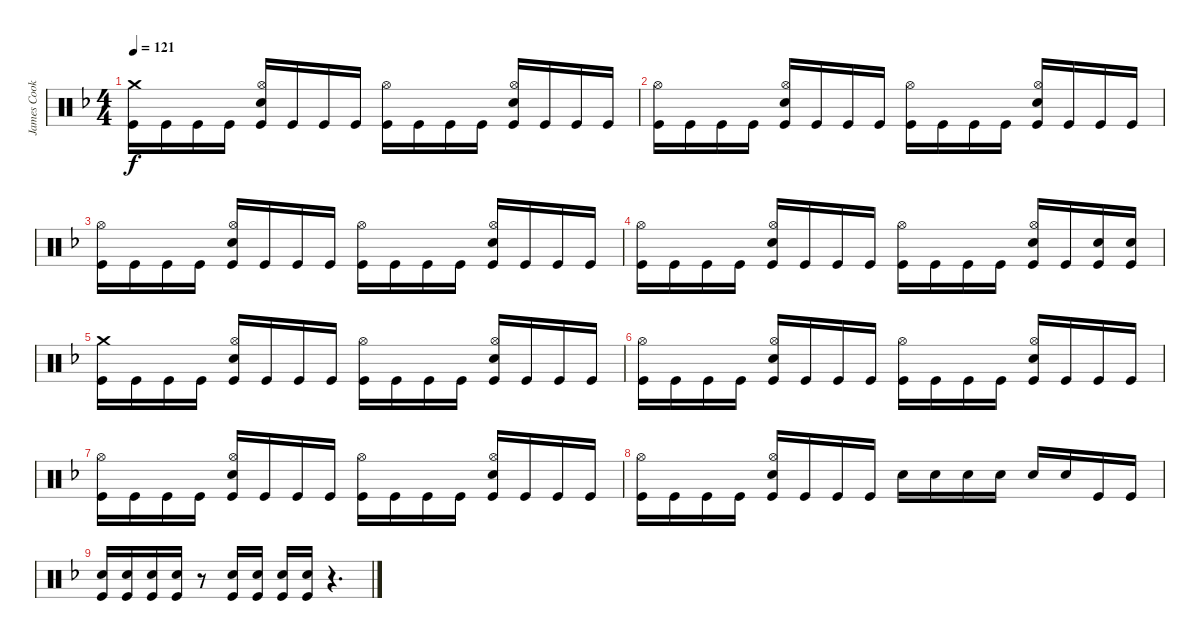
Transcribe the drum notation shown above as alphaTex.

\track ("James Cook" "James Cook") {instrument percussion}
\staff {score}
\articulation defaults
\ts (4 4)
\tempo 121
\clef neutral
\ks f
("Crash medium (hit)" "Kick (hit)").16{dy f} "Kick (hit)".16 "Kick (hit)".16 "Kick (hit)".16 ("Hi-Hat (open)" "Snare (hit) 2" "Kick (hit)").16 "Kick (hit)".16 "Kick (hit)".16 "Kick (hit)".16 ("Hi-Hat (open)" "Kick (hit)").16 "Kick (hit)".16 "Kick (hit)".16 "Kick (hit)".16 ("Hi-Hat (open)" "Snare (hit) 2" "Kick (hit)").16 "Kick (hit)".16 "Kick (hit)".16 "Kick (hit)".16 |
("Hi-Hat (open)" "Kick (hit)").16 "Kick (hit)".16 "Kick (hit)".16 "Kick (hit)".16 ("Hi-Hat (open)" "Snare (hit) 2" "Kick (hit)").16 "Kick (hit)".16 "Kick (hit)".16 "Kick (hit)".16 ("Hi-Hat (open)" "Kick (hit)").16 "Kick (hit)".16 "Kick (hit)".16 "Kick (hit)".16 ("Hi-Hat (open)" "Snare (hit) 2" "Kick (hit)").16 "Kick (hit)".16 "Kick (hit)".16 "Kick (hit)".16 |
("Hi-Hat (open)" "Kick (hit)").16 "Kick (hit)".16 "Kick (hit)".16 "Kick (hit)".16 ("Hi-Hat (open)" "Snare (hit) 2" "Kick (hit)").16 "Kick (hit)".16 "Kick (hit)".16 "Kick (hit)".16 ("Hi-Hat (open)" "Kick (hit)").16 "Kick (hit)".16 "Kick (hit)".16 "Kick (hit)".16 ("Hi-Hat (open)" "Snare (hit) 2" "Kick (hit)").16 "Kick (hit)".16 "Kick (hit)".16 "Kick (hit)".16 |
("Hi-Hat (open)" "Kick (hit)").16 "Kick (hit)".16 "Kick (hit)".16 "Kick (hit)".16 ("Hi-Hat (open)" "Snare (hit) 2" "Kick (hit)").16 "Kick (hit)".16 "Kick (hit)".16 "Kick (hit)".16 ("Hi-Hat (open)" "Kick (hit)").16 "Kick (hit)".16 "Kick (hit)".16 "Kick (hit)".16 ("Hi-Hat (open)" "Snare (hit) 2" "Kick (hit)").16 "Kick (hit)".16 ("Snare (hit) 2" "Kick (hit)").16 ("Snare (hit) 2" "Kick (hit)").16 |
("Crash medium (hit)" "Kick (hit)").16 "Kick (hit)".16 "Kick (hit)".16 "Kick (hit)".16 ("Hi-Hat (open)" "Snare (hit) 2" "Kick (hit)").16 "Kick (hit)".16 "Kick (hit)".16 "Kick (hit)".16 ("Hi-Hat (open)" "Kick (hit)").16 "Kick (hit)".16 "Kick (hit)".16 "Kick (hit)".16 ("Hi-Hat (open)" "Snare (hit) 2" "Kick (hit)").16 "Kick (hit)".16 "Kick (hit)".16 "Kick (hit)".16 |
("Hi-Hat (open)" "Kick (hit)").16 "Kick (hit)".16 "Kick (hit)".16 "Kick (hit)".16 ("Hi-Hat (open)" "Snare (hit) 2" "Kick (hit)").16 "Kick (hit)".16 "Kick (hit)".16 "Kick (hit)".16 ("Hi-Hat (open)" "Kick (hit)").16 "Kick (hit)".16 "Kick (hit)".16 "Kick (hit)".16 ("Hi-Hat (open)" "Snare (hit) 2" "Kick (hit)").16 "Kick (hit)".16 "Kick (hit)".16 "Kick (hit)".16 |
("Hi-Hat (open)" "Kick (hit)").16 "Kick (hit)".16 "Kick (hit)".16 "Kick (hit)".16 ("Hi-Hat (open)" "Snare (hit) 2" "Kick (hit)").16 "Kick (hit)".16 "Kick (hit)".16 "Kick (hit)".16 ("Hi-Hat (open)" "Kick (hit)").16 "Kick (hit)".16 "Kick (hit)".16 "Kick (hit)".16 ("Hi-Hat (open)" "Snare (hit) 2" "Kick (hit)").16 "Kick (hit)".16 "Kick (hit)".16 "Kick (hit)".16 |
("Hi-Hat (open)" "Kick (hit)").16 "Kick (hit)".16 "Kick (hit)".16 "Kick (hit)".16 ("Hi-Hat (open)" "Snare (hit) 2" "Kick (hit)").16 "Kick (hit)".16 "Kick (hit)".16 "Kick (hit)".16 "Snare (hit) 2".16 "Snare (hit) 2".16 "Snare (hit) 2".16 "Snare (hit) 2".16 "Snare (hit) 2".16 "Snare (hit) 2".16 "Kick (hit)".16 "Kick (hit)".16 |
("Snare (hit) 2" "Kick (hit)").16 ("Snare (hit) 2" "Kick (hit)").16 ("Snare (hit) 2" "Kick (hit)").16 ("Snare (hit) 2" "Kick (hit)").16 r.8 ("Snare (hit) 2" "Kick (hit)").16 ("Snare (hit) 2" "Kick (hit)").16 ("Snare (hit) 2" "Kick (hit)").16 ("Snare (hit) 2" "Kick (hit)").16 r.4{d}
